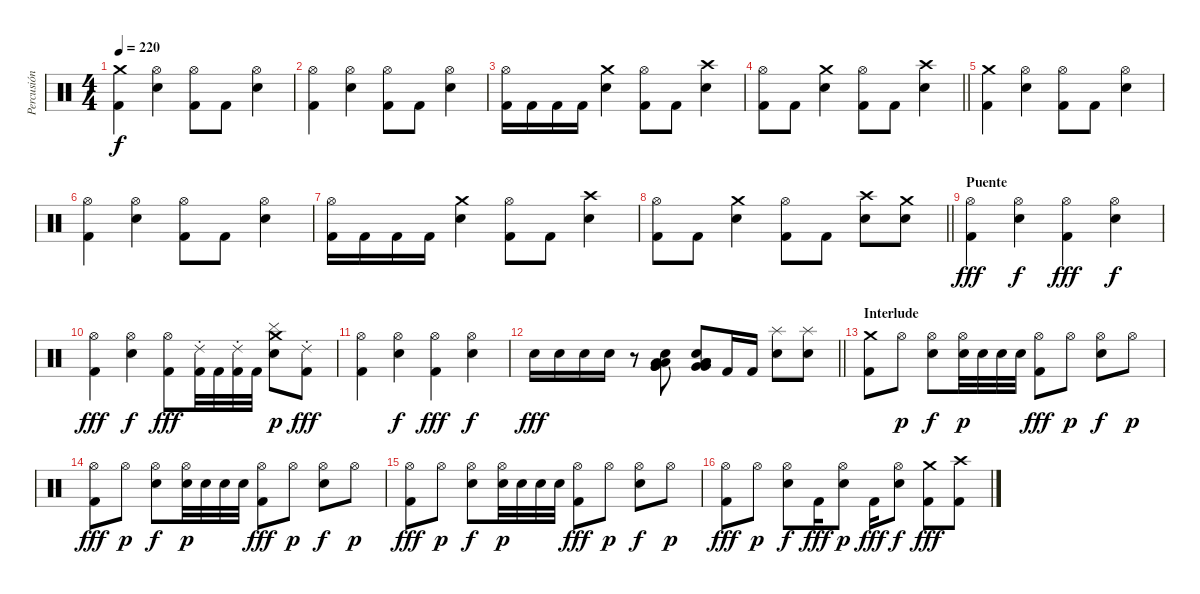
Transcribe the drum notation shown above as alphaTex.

\track ("Percusión" "Percusión") {instrument percussion}
\staff {score}
\articulation defaults
\ts (4 4)
\tempo 220
\clef neutral
\ks c
("Crash medium (hit)" "Kick (hit) 2").4{dy f} ("Hi-Hat (open)" "Snare (hit) 2").4 ("Hi-Hat (open)" "Kick (hit) 2").8 "Kick (hit) 2".8 ("Hi-Hat (open)" "Snare (hit) 2").4 |
("Hi-Hat (open)" "Kick (hit) 2").4 ("Hi-Hat (open)" "Snare (hit) 2").4 ("Hi-Hat (open)" "Kick (hit) 2").8 "Kick (hit) 2".8 ("Hi-Hat (open)" "Snare (hit) 2").4 |
("Hi-Hat (open)" "Kick (hit) 2").16 "Kick (hit) 2".16 "Kick (hit) 2".16 "Kick (hit) 2".16 ("Crash medium (hit)" "Snare (hit) 2").4 ("Hi-Hat (open)" "Kick (hit) 2").8 "Kick (hit) 2".8 ("Crash high (hit)" "Snare (hit) 2").4 |
\barLineRight lightlight
("Hi-Hat (open)" "Kick (hit) 2").8 "Kick (hit) 2".8 ("Crash medium (hit)" "Snare (hit) 2").4 ("Hi-Hat (open)" "Kick (hit) 2").8 "Kick (hit) 2".8 ("Crash high (hit)" "Snare (hit) 2").4 |
\section ("" "")
("Crash medium (hit)" "Kick (hit) 2").4 ("Hi-Hat (open)" "Snare (hit) 2").4 ("Hi-Hat (open)" "Kick (hit) 2").8 "Kick (hit) 2".8 ("Hi-Hat (open)" "Snare (hit) 2").4 |
("Hi-Hat (open)" "Kick (hit) 2").4 ("Hi-Hat (open)" "Snare (hit) 2").4 ("Hi-Hat (open)" "Kick (hit) 2").8 "Kick (hit) 2".8 ("Hi-Hat (open)" "Snare (hit) 2").4 |
("Hi-Hat (open)" "Kick (hit) 2").16 "Kick (hit) 2".16 "Kick (hit) 2".16 "Kick (hit) 2".16 ("Crash medium (hit)" "Snare (hit) 2").4 ("Hi-Hat (open)" "Kick (hit) 2").8 "Kick (hit) 2".8 ("Crash high (hit)" "Snare (hit) 2").4 |
\barLineRight lightlight
("Hi-Hat (open)" "Kick (hit) 2").8 "Kick (hit) 2".8 ("Crash medium (hit)" "Snare (hit) 2").4 ("Hi-Hat (open)" "Kick (hit) 2").8 "Kick (hit) 2".8 ("Crash high (hit)" "Snare (hit) 2").8 ("Crash medium (hit)" "Snare (hit) 2").8 |
\section ("" "Puente")
("Hi-Hat (open)" "Kick (hit) 2").4{dy fff} ("Hi-Hat (open)" "Snare (hit) 2").4{dy f} ("Hi-Hat (open)" "Kick (hit) 2").4{dy fff} ("Hi-Hat (open)" "Snare (hit) 2").4{dy f} |
("Hi-Hat (open)" "Kick (hit) 2").4{dy fff} ("Hi-Hat (open)" "Snare (hit) 2").4{dy f} ("Hi-Hat (open)" "Kick (hit) 2").8{dy fff} ("Ride (choke) 2" "Kick (hit) 2").32 "Kick (hit) 2".32 ("Ride (choke) 2" "Kick (hit) 2").32 "Kick (hit) 2".32 ("Crash medium (hit)" "Cymbal (hit)" "Snare (hit) 2").8{dy p} ("Ride (choke) 2" "Kick (hit) 2").8{dy fff} |
("Hi-Hat (open)" "Kick (hit) 2").4 ("Hi-Hat (open)" "Snare (hit) 2").4{dy f} ("Hi-Hat (open)" "Kick (hit) 2").4{dy fff} ("Hi-Hat (open)" "Snare (hit) 2").4{dy f} |
\barLineRight lightlight "Snare (hit) 2".16{dy fff} "Snare (hit) 2".16 "Snare (hit) 2".16 "Snare (hit) 2".16
r.8 ("Very Low Tom (hit)" "Very Low Tom (hit)" "Low Floor Tom (hit)" "Low Floor Tom (hit)" "Snare (hit) 2").8 ("Low Floor Tom (hit)" "Low Floor Tom (hit)" "Very Low Tom (hit)" "Very Low Tom (hit)" "Snare (hit) 2").8 "Kick (hit) 2".16 "Kick (hit) 2".16 ("Splash (hit)" "Snare (hit) 2").8 ("Splash (hit)" "Snare (hit) 2").8 |
\section ("" "Interlude")
("Crash medium (hit)" "Kick (hit) 2").8 "Hi-Hat (open)".8{dy p} ("Hi-Hat (open)" "Snare (hit) 2").8{dy f} ("Hi-Hat (open)" "Snare (hit) 2").32{dy p} "Snare (hit) 2".32 "Snare (hit) 2".32 "Snare (hit) 2".32 ("Hi-Hat (open)" "Kick (hit) 2").8{dy fff} "Hi-Hat (open)".8{dy p} ("Hi-Hat (open)" "Snare (hit) 2").8{dy f} "Hi-Hat (open)".8{dy p} |
("Hi-Hat (open)" "Kick (hit) 2").8{dy fff} "Hi-Hat (open)".8{dy p} ("Hi-Hat (open)" "Snare (hit) 2").8{dy f} ("Hi-Hat (open)" "Snare (hit) 2").32{dy p} "Snare (hit) 2".32 "Snare (hit) 2".32 "Snare (hit) 2".32 ("Hi-Hat (open)" "Kick (hit) 2").8{dy fff} "Hi-Hat (open)".8{dy p} ("Hi-Hat (open)" "Snare (hit) 2").8{dy f} "Hi-Hat (open)".8{dy p} |
("Hi-Hat (open)" "Kick (hit) 2").8{dy fff} "Hi-Hat (open)".8{dy p} ("Hi-Hat (open)" "Snare (hit) 2").8{dy f} ("Hi-Hat (open)" "Snare (hit) 2").32{dy p} "Snare (hit) 2".32 "Snare (hit) 2".32 "Snare (hit) 2".32 ("Hi-Hat (open)" "Kick (hit) 2").8{dy fff} "Hi-Hat (open)".8{dy p} ("Hi-Hat (open)" "Snare (hit) 2").8{dy f} "Hi-Hat (open)".8{dy p} |
("Hi-Hat (open)" "Kick (hit) 2").8{dy fff} "Hi-Hat (open)".8{dy p} ("Hi-Hat (open)" "Snare (hit) 2").8{dy f} "Kick (hit) 2".16{dy fff} ("Hi-Hat (open)" "Snare (hit) 2").8{dy p} "Kick (hit) 2".16{dy fff} ("Hi-Hat (open)" "Snare (hit) 2").8{dy f} ("Crash medium (hit)" "Kick (hit) 2").8{dy fff} ("Crash high (hit)" "Kick (hit) 2").8
